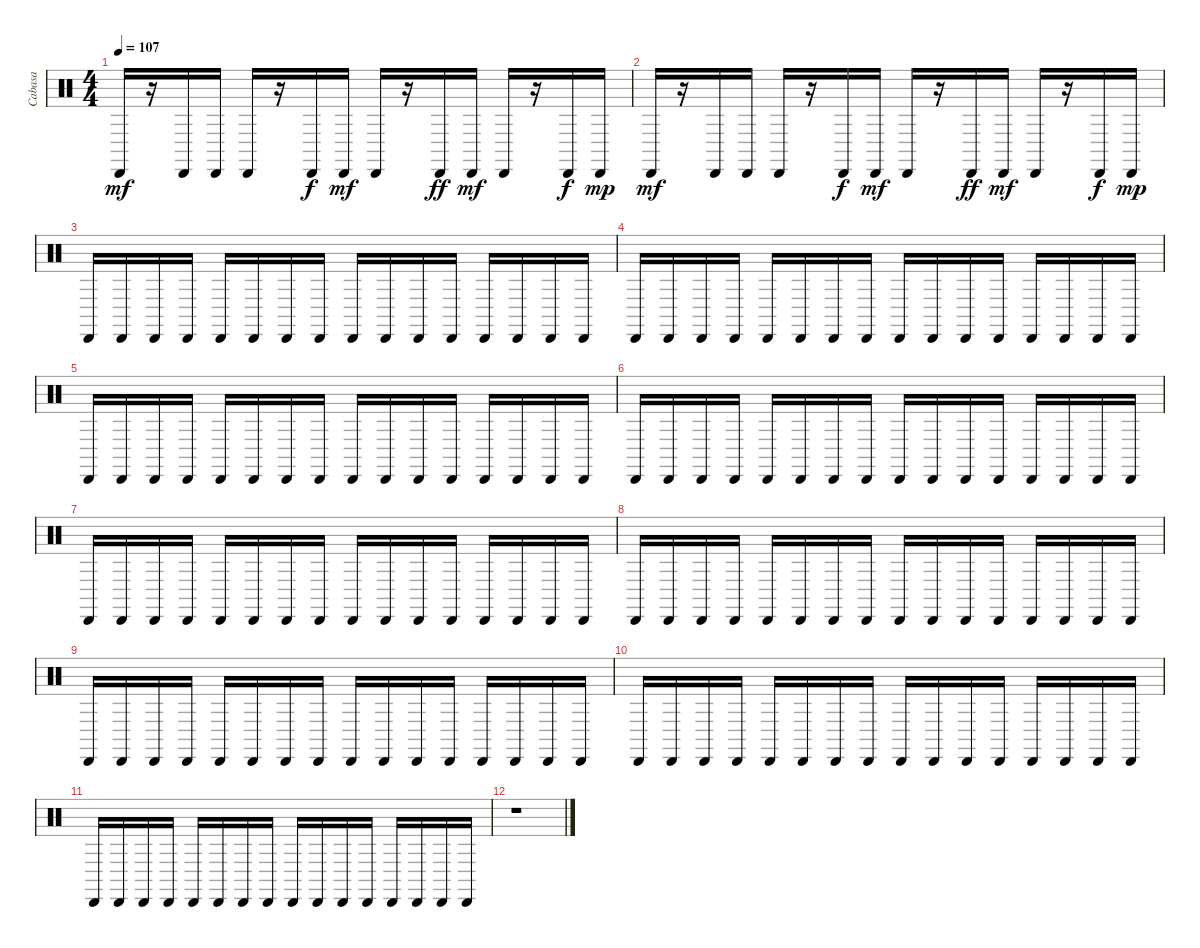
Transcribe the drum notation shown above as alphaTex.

\track ("Cabasa" "Cabasa") {instrument percussion}
\staff {score}
\articulation defaults
\ts (4 4)
\tempo 107
\clef neutral
\ks c "Cabasa (hit)".16{dy mf}
r.16 "Cabasa (hit)".16 "Cabasa (hit)".16 "Cabasa (hit)".16 r.16 "Cabasa (hit)".16{dy f} "Cabasa (hit)".16{dy mf} "Cabasa (hit)".16 r.16 "Cabasa (hit)".16{dy ff} "Cabasa (hit)".16{dy mf} "Cabasa (hit)".16 r.16 "Cabasa (hit)".16{dy f} "Cabasa (hit)".16{dy mp} |
"Cabasa (hit)".16{dy mf} r.16 "Cabasa (hit)".16 "Cabasa (hit)".16 "Cabasa (hit)".16 r.16 "Cabasa (hit)".16{dy f} "Cabasa (hit)".16{dy mf} "Cabasa (hit)".16 r.16 "Cabasa (hit)".16{dy ff} "Cabasa (hit)".16{dy mf} "Cabasa (hit)".16 r.16 "Cabasa (hit)".16{dy f} "Cabasa (hit)".16{dy mp} |
"Cabasa (hit)".16 "Cabasa (hit)".16 "Cabasa (hit)".16 "Cabasa (hit)".16 "Cabasa (hit)".16 "Cabasa (hit)".16 "Cabasa (hit)".16 "Cabasa (hit)".16 "Cabasa (hit)".16 "Cabasa (hit)".16 "Cabasa (hit)".16 "Cabasa (hit)".16 "Cabasa (hit)".16 "Cabasa (hit)".16 "Cabasa (hit)".16 "Cabasa (hit)".16 |
"Cabasa (hit)".16 "Cabasa (hit)".16 "Cabasa (hit)".16 "Cabasa (hit)".16 "Cabasa (hit)".16 "Cabasa (hit)".16 "Cabasa (hit)".16 "Cabasa (hit)".16 "Cabasa (hit)".16 "Cabasa (hit)".16 "Cabasa (hit)".16 "Cabasa (hit)".16 "Cabasa (hit)".16 "Cabasa (hit)".16 "Cabasa (hit)".16 "Cabasa (hit)".16 |
"Cabasa (hit)".16 "Cabasa (hit)".16 "Cabasa (hit)".16 "Cabasa (hit)".16 "Cabasa (hit)".16 "Cabasa (hit)".16 "Cabasa (hit)".16 "Cabasa (hit)".16 "Cabasa (hit)".16 "Cabasa (hit)".16 "Cabasa (hit)".16 "Cabasa (hit)".16 "Cabasa (hit)".16 "Cabasa (hit)".16 "Cabasa (hit)".16 "Cabasa (hit)".16 |
"Cabasa (hit)".16 "Cabasa (hit)".16 "Cabasa (hit)".16 "Cabasa (hit)".16 "Cabasa (hit)".16 "Cabasa (hit)".16 "Cabasa (hit)".16 "Cabasa (hit)".16 "Cabasa (hit)".16 "Cabasa (hit)".16 "Cabasa (hit)".16 "Cabasa (hit)".16 "Cabasa (hit)".16 "Cabasa (hit)".16 "Cabasa (hit)".16 "Cabasa (hit)".16 |
"Cabasa (hit)".16 "Cabasa (hit)".16 "Cabasa (hit)".16 "Cabasa (hit)".16 "Cabasa (hit)".16 "Cabasa (hit)".16 "Cabasa (hit)".16 "Cabasa (hit)".16 "Cabasa (hit)".16 "Cabasa (hit)".16 "Cabasa (hit)".16 "Cabasa (hit)".16 "Cabasa (hit)".16 "Cabasa (hit)".16 "Cabasa (hit)".16 "Cabasa (hit)".16 |
"Cabasa (hit)".16 "Cabasa (hit)".16 "Cabasa (hit)".16 "Cabasa (hit)".16 "Cabasa (hit)".16 "Cabasa (hit)".16 "Cabasa (hit)".16 "Cabasa (hit)".16 "Cabasa (hit)".16 "Cabasa (hit)".16 "Cabasa (hit)".16 "Cabasa (hit)".16 "Cabasa (hit)".16 "Cabasa (hit)".16 "Cabasa (hit)".16 "Cabasa (hit)".16 |
"Cabasa (hit)".16 "Cabasa (hit)".16 "Cabasa (hit)".16 "Cabasa (hit)".16 "Cabasa (hit)".16 "Cabasa (hit)".16 "Cabasa (hit)".16 "Cabasa (hit)".16 "Cabasa (hit)".16 "Cabasa (hit)".16 "Cabasa (hit)".16 "Cabasa (hit)".16 "Cabasa (hit)".16 "Cabasa (hit)".16 "Cabasa (hit)".16 "Cabasa (hit)".16 |
"Cabasa (hit)".16 "Cabasa (hit)".16 "Cabasa (hit)".16 "Cabasa (hit)".16 "Cabasa (hit)".16 "Cabasa (hit)".16 "Cabasa (hit)".16 "Cabasa (hit)".16 "Cabasa (hit)".16 "Cabasa (hit)".16 "Cabasa (hit)".16 "Cabasa (hit)".16 "Cabasa (hit)".16 "Cabasa (hit)".16 "Cabasa (hit)".16 "Cabasa (hit)".16 |
"Cabasa (hit)".16 "Cabasa (hit)".16 "Cabasa (hit)".16 "Cabasa (hit)".16 "Cabasa (hit)".16 "Cabasa (hit)".16 "Cabasa (hit)".16 "Cabasa (hit)".16 "Cabasa (hit)".16 "Cabasa (hit)".16 "Cabasa (hit)".16 "Cabasa (hit)".16 "Cabasa (hit)".16 "Cabasa (hit)".16 "Cabasa (hit)".16 "Cabasa (hit)".16 |
r.1
